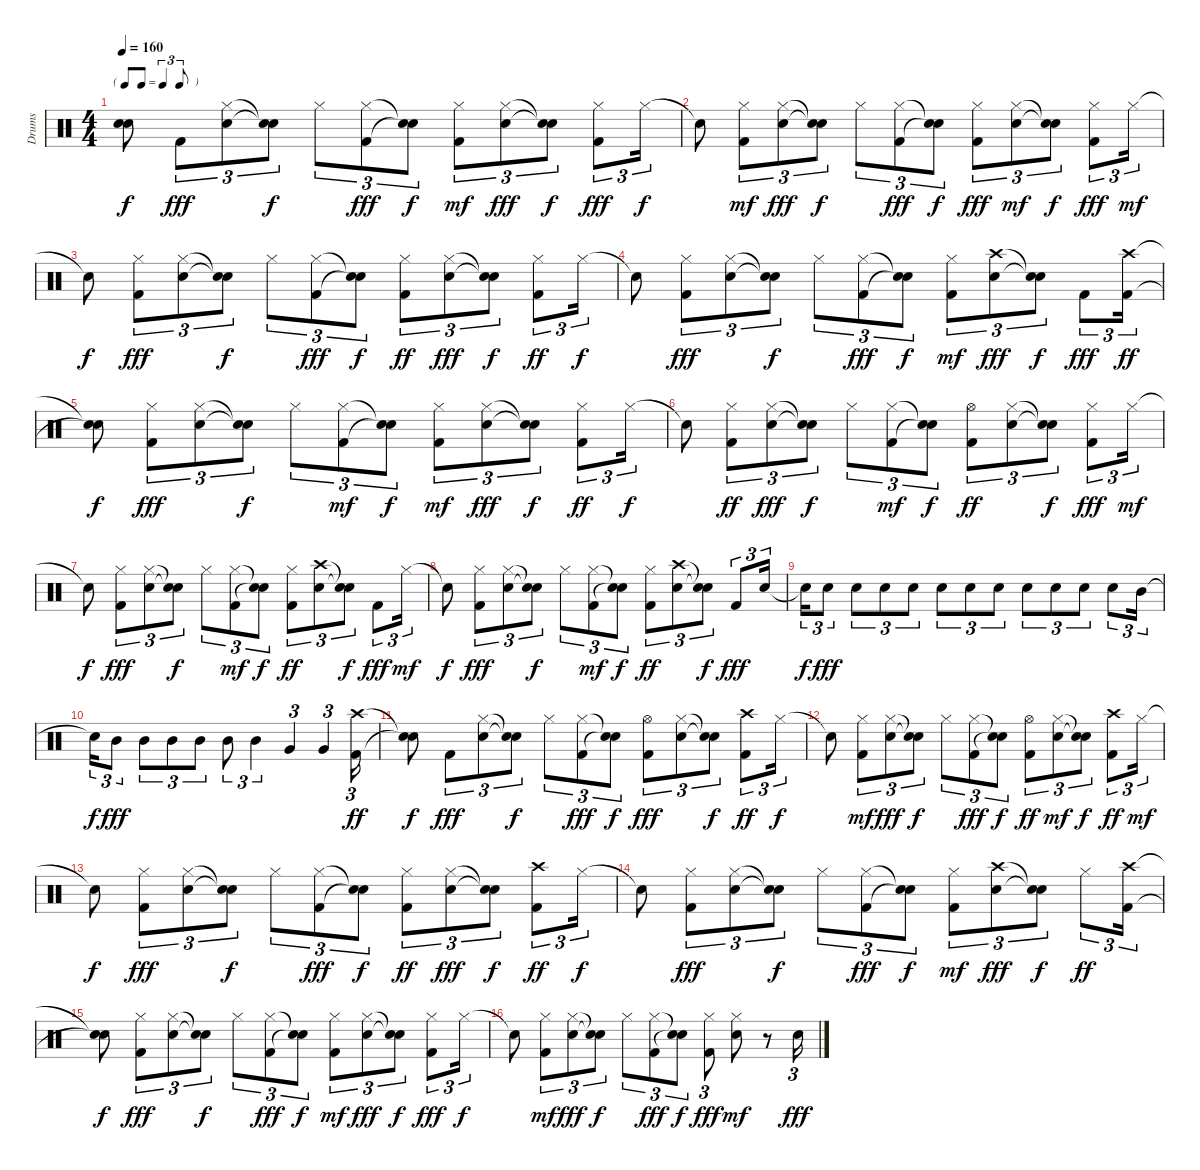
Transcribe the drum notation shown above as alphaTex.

\track ("Drums" "Drums") {instrument percussion}
\staff {score}
\articulation defaults
\ts (4 4)
\tf triplet8th
\tempo 160
\clef neutral
\ks c
("Snare (hit)"{t} "Snare (hit)"{t}).8{dy f} "Kick (hit) 2".8{tu (3 2) dy fff} ("Hi-Hat (closed)" "Electric Snare (hit)").8{tu (3 2)} ("Snare (hit)"{t} "Snare (hit)"{t}).8{tu (3 2) dy f} "Hi-Hat (closed)".8{tu (3 2)} ("Kick (hit) 2" "Hi-Hat (closed)").8{tu (3 2) dy fff} ("Snare (hit)"{t} "Snare (hit)"{t}).8{tu (3 2) dy f} ("Kick (hit) 2" "Hi-Hat (closed)").8{tu (3 2) dy mf} ("Electric Snare (hit)" "Hi-Hat (closed)").8{tu (3 2) dy fff} ("Snare (hit)"{t} "Snare (hit)"{t}).8{tu (3 2) dy f} ("Kick (hit) 2" "Hi-Hat (closed)").8{tu (3 2) dy fff} "Hi-Hat (closed)".16{tu (3 2) dy f} |
"Snare (hit)"{t}.8 ("Kick (hit) 2" "Hi-Hat (closed)").8{tu (3 2) dy mf} ("Electric Snare (hit)" "Hi-Hat (closed)").8{tu (3 2) dy fff} ("Snare (hit)"{t} "Snare (hit)"{t}).8{tu (3 2) dy f} "Hi-Hat (closed)".8{tu (3 2)} ("Kick (hit) 2" "Hi-Hat (closed)").8{tu (3 2) dy fff} ("Snare (hit)"{t} "Snare (hit)"{t}).8{tu (3 2) dy f} ("Kick (hit) 2" "Hi-Hat (closed)").8{tu (3 2) dy fff} ("Electric Snare (hit)" "Hi-Hat (closed)").8{tu (3 2) dy mf} ("Snare (hit)"{t} "Snare (hit)"{t}).8{tu (3 2) dy f} ("Kick (hit) 2" "Hi-Hat (closed)").8{tu (3 2) dy fff} "Hi-Hat (closed)".16{tu (3 2) dy mf} |
"Snare (hit)"{t}.8{dy f} ("Kick (hit) 2" "Hi-Hat (closed)").8{tu (3 2) dy fff} ("Hi-Hat (closed)" "Electric Snare (hit)").8{tu (3 2)} ("Snare (hit)"{t} "Snare (hit)"{t}).8{tu (3 2) dy f} "Hi-Hat (closed)".8{tu (3 2)} ("Kick (hit) 2" "Hi-Hat (closed)").8{tu (3 2) dy fff} ("Snare (hit)"{t} "Snare (hit)"{t}).8{tu (3 2) dy f} ("Kick (hit) 2" "Hi-Hat (closed)").8{tu (3 2) dy ff} ("Hi-Hat (closed)" "Electric Snare (hit)").8{tu (3 2) dy fff} ("Snare (hit)"{t} "Snare (hit)"{t}).8{tu (3 2) dy f} ("Kick (hit) 2" "Hi-Hat (closed)").8{tu (3 2) dy ff} "Hi-Hat (closed)".16{tu (3 2) dy f} |
"Snare (hit)"{t}.8 ("Kick (hit) 2" "Hi-Hat (closed)").8{tu (3 2) dy fff} ("Hi-Hat (closed)" "Electric Snare (hit)").8{tu (3 2)} ("Snare (hit)"{t} "Snare (hit)"{t}).8{tu (3 2) dy f} "Hi-Hat (closed)".8{tu (3 2)} ("Kick (hit) 2" "Hi-Hat (closed)").8{tu (3 2) dy fff} ("Snare (hit)"{t} "Snare (hit)"{t}).8{tu (3 2) dy f} ("Kick (hit) 2" "Hi-Hat (closed)").8{tu (3 2) dy mf} ("Crash high (hit)" "Electric Snare (hit)").8{tu (3 2) dy fff} ("Snare (hit)"{t} "Snare (hit)"{t}).8{tu (3 2) dy f} "Kick (hit) 2".8{tu (3 2) dy fff} ("Kick (hit) 2" "Crash high (hit)").16{tu (3 2) dy ff} |
("Snare (hit)"{t} "Snare (hit)"{t}).8{dy f} ("Kick (hit) 2" "Hi-Hat (closed)").8{tu (3 2) dy fff} ("Electric Snare (hit)" "Hi-Hat (closed)").8{tu (3 2)} ("Snare (hit)"{t} "Snare (hit)"{t}).8{tu (3 2) dy f} "Hi-Hat (closed)".8{tu (3 2)} ("Kick (hit) 2" "Hi-Hat (closed)").8{tu (3 2) dy mf} ("Snare (hit)"{t} "Snare (hit)"{t}).8{tu (3 2) dy f} ("Kick (hit) 2" "Hi-Hat (closed)").8{tu (3 2) dy mf} ("Electric Snare (hit)" "Hi-Hat (closed)").8{tu (3 2) dy fff} ("Snare (hit)"{t} "Snare (hit)"{t}).8{tu (3 2) dy f} ("Kick (hit) 2" "Hi-Hat (closed)").8{tu (3 2) dy ff} "Hi-Hat (closed)".16{tu (3 2) dy f} |
"Snare (hit)"{t}.8 ("Kick (hit) 2" "Hi-Hat (closed)").8{tu (3 2) dy ff} ("Hi-Hat (closed)" "Electric Snare (hit)").8{tu (3 2) dy fff} ("Snare (hit)"{t} "Snare (hit)"{t}).8{tu (3 2) dy f} "Hi-Hat (closed)".8{tu (3 2)} ("Kick (hit) 2" "Hi-Hat (closed)").8{tu (3 2) dy mf} ("Snare (hit)"{t} "Snare (hit)"{t}).8{tu (3 2) dy f} ("Kick (hit) 2" "Hi-Hat (open)").8{tu (3 2) dy ff} ("Electric Snare (hit)" "Hi-Hat (closed)").8{tu (3 2)} ("Snare (hit)"{t} "Snare (hit)"{t}).8{tu (3 2) dy f} ("Kick (hit) 2" "Hi-Hat (closed)").8{tu (3 2) dy fff} "Hi-Hat (closed)".16{tu (3 2) dy mf} |
"Snare (hit)"{t}.8{dy f} ("Kick (hit) 2" "Hi-Hat (closed)").8{tu (3 2) dy fff} ("Hi-Hat (closed)" "Electric Snare (hit)").8{tu (3 2)} ("Snare (hit)"{t} "Snare (hit)"{t}).8{tu (3 2) dy f} "Hi-Hat (closed)".8{tu (3 2)} ("Kick (hit) 2" "Hi-Hat (closed)").8{tu (3 2) dy mf} ("Snare (hit)"{t} "Snare (hit)"{t}).8{tu (3 2) dy f} ("Kick (hit) 2" "Hi-Hat (closed)").8{tu (3 2) dy ff} ("Electric Snare (hit)" "Crash high (hit)").8{tu (3 2)} ("Snare (hit)"{t} "Snare (hit)"{t}).8{tu (3 2) dy f} "Kick (hit) 2".8{tu (3 2) dy fff} "Hi-Hat (closed)".16{tu (3 2) dy mf} |
"Snare (hit)"{t}.8{dy f} ("Kick (hit) 2" "Hi-Hat (closed)").8{tu (3 2) dy fff} ("Hi-Hat (closed)" "Electric Snare (hit)").8{tu (3 2)} ("Snare (hit)"{t} "Snare (hit)"{t}).8{tu (3 2) dy f} "Hi-Hat (closed)".8{tu (3 2)} ("Kick (hit) 2" "Hi-Hat (closed)").8{tu (3 2) dy mf} ("Snare (hit)"{t} "Snare (hit)"{t}).8{tu (3 2) dy f} ("Kick (hit) 2" "Hi-Hat (closed)").8{tu (3 2) dy ff} ("Electric Snare (hit)" "Crash high (hit)").8{tu (3 2)} ("Snare (hit)"{t} "Snare (hit)"{t}).8{tu (3 2) dy f} "Kick (hit) 2".8{tu (3 2) dy fff} "Electric Snare (hit)".16{tu (3 2)} |
"Snare (hit)"{t}.16{tu (3 2) dy f} "Electric Snare (hit)".8{tu (3 2) dy fff} "Electric Snare (hit)".8{tu (3 2)} "Electric Snare (hit)".8{tu (3 2)} "Electric Snare (hit)".8{tu (3 2)} "Electric Snare (hit)".8{tu (3 2)} "Electric Snare (hit)".8{tu (3 2)} "Electric Snare (hit)".8{tu (3 2)} "Electric Snare (hit)".8{tu (3 2)} "Electric Snare (hit)".8{tu (3 2)} "Electric Snare (hit)".8{tu (3 2)} "Electric Snare (hit)".8{tu (3 2)} "Mid Tom (hit)".16{tu (3 2)} |
"Snare (hit)"{t}.16{tu (3 2) dy f} "Mid Tom (hit)".8{tu (3 2) dy fff} "Mid Tom (hit)".8{tu (3 2)} "Mid Tom (hit)".8{tu (3 2)} "Mid Tom (hit)".8{tu (3 2)} "Mid Tom (hit)".8{tu (3 2)} "Mid Tom (hit)".4{tu (3 2)} "Very Low Tom (hit)".4{tu (3 2)} "Very Low Tom (hit)".4{tu (3 2)} ("Kick (hit) 2" "Crash high (hit)").16{tu (3 2) dy ff} |
("Snare (hit)"{t} "Snare (hit)"{t}).8{dy f} "Kick (hit) 2".8{tu (3 2) dy fff} ("Hi-Hat (closed)" "Electric Snare (hit)").8{tu (3 2)} ("Snare (hit)"{t} "Snare (hit)"{t}).8{tu (3 2) dy f} "Hi-Hat (closed)".8{tu (3 2)} ("Kick (hit) 2" "Hi-Hat (closed)").8{tu (3 2) dy fff} ("Snare (hit)"{t} "Snare (hit)"{t}).8{tu (3 2) dy f} ("Kick (hit) 2" "Hi-Hat (open)").8{tu (3 2) dy fff} ("Electric Snare (hit)" "Hi-Hat (closed)").8{tu (3 2)} ("Snare (hit)"{t} "Snare (hit)"{t}).8{tu (3 2) dy f} ("Kick (hit) 2" "Crash high (hit)").8{tu (3 2) dy ff} "Hi-Hat (closed)".16{tu (3 2) dy f} |
"Snare (hit)"{t}.8 ("Kick (hit) 2" "Hi-Hat (closed)").8{tu (3 2) dy mf} ("Electric Snare (hit)" "Hi-Hat (closed)").8{tu (3 2) dy fff} ("Snare (hit)"{t} "Snare (hit)"{t}).8{tu (3 2) dy f} "Hi-Hat (closed)".8{tu (3 2)} ("Kick (hit) 2" "Hi-Hat (closed)").8{tu (3 2) dy fff} ("Snare (hit)"{t} "Snare (hit)"{t}).8{tu (3 2) dy f} ("Kick (hit) 2" "Hi-Hat (open)").8{tu (3 2) dy ff} ("Electric Snare (hit)" "Hi-Hat (closed)").8{tu (3 2) dy mf} ("Snare (hit)"{t} "Snare (hit)"{t}).8{tu (3 2) dy f} ("Kick (hit) 2" "Crash high (hit)").8{tu (3 2) dy ff} "Hi-Hat (closed)".16{tu (3 2) dy mf} |
"Snare (hit)"{t}.8{dy f} ("Kick (hit) 2" "Hi-Hat (closed)").8{tu (3 2) dy fff} ("Hi-Hat (closed)" "Electric Snare (hit)").8{tu (3 2)} ("Snare (hit)"{t} "Snare (hit)"{t}).8{tu (3 2) dy f} "Hi-Hat (closed)".8{tu (3 2)} ("Kick (hit) 2" "Hi-Hat (closed)").8{tu (3 2) dy fff} ("Snare (hit)"{t} "Snare (hit)"{t}).8{tu (3 2) dy f} ("Kick (hit) 2" "Hi-Hat (closed)").8{tu (3 2) dy ff} ("Hi-Hat (closed)" "Electric Snare (hit)").8{tu (3 2) dy fff} ("Snare (hit)"{t} "Snare (hit)"{t}).8{tu (3 2) dy f} ("Kick (hit) 2" "Crash high (hit)").8{tu (3 2) dy ff} "Hi-Hat (closed)".16{tu (3 2) dy f} |
"Snare (hit)"{t}.8 ("Kick (hit) 2" "Hi-Hat (closed)").8{tu (3 2) dy fff} ("Hi-Hat (closed)" "Electric Snare (hit)").8{tu (3 2)} ("Snare (hit)"{t} "Snare (hit)"{t}).8{tu (3 2) dy f} "Hi-Hat (closed)".8{tu (3 2)} ("Kick (hit) 2" "Hi-Hat (closed)").8{tu (3 2) dy fff} ("Snare (hit)"{t} "Snare (hit)"{t}).8{tu (3 2) dy f} ("Kick (hit) 2" "Hi-Hat (closed)").8{tu (3 2) dy mf} ("Crash high (hit)" "Electric Snare (hit)").8{tu (3 2) dy fff} ("Snare (hit)"{t} "Snare (hit)"{t}).8{tu (3 2) dy f} "Hi-Hat (closed)".8{tu (3 2) dy ff} ("Kick (hit) 2" "Crash high (hit)").16{tu (3 2)} |
("Snare (hit)"{t} "Snare (hit)"{t}).8{dy f} ("Kick (hit) 2" "Hi-Hat (closed)").8{tu (3 2) dy fff} ("Hi-Hat (closed)" "Electric Snare (hit)").8{tu (3 2)} ("Snare (hit)"{t} "Snare (hit)"{t}).8{tu (3 2) dy f} "Hi-Hat (closed)".8{tu (3 2)} ("Kick (hit) 2" "Hi-Hat (closed)").8{tu (3 2) dy fff} ("Snare (hit)"{t} "Snare (hit)"{t}).8{tu (3 2) dy f} ("Kick (hit) 2" "Hi-Hat (closed)").8{tu (3 2) dy mf} ("Electric Snare (hit)" "Hi-Hat (closed)").8{tu (3 2) dy fff} ("Snare (hit)"{t} "Snare (hit)"{t}).8{tu (3 2) dy f} ("Kick (hit) 2" "Hi-Hat (closed)").8{tu (3 2) dy fff} "Hi-Hat (closed)".16{tu (3 2) dy f} |
"Snare (hit)"{t}.8 ("Kick (hit) 2" "Hi-Hat (closed)").8{tu (3 2) dy mf} ("Electric Snare (hit)" "Hi-Hat (closed)").8{tu (3 2) dy fff} ("Snare (hit)"{t} "Snare (hit)"{t}).8{tu (3 2) dy f} "Hi-Hat (closed)".8{tu (3 2)} ("Kick (hit) 2" "Hi-Hat (closed)").8{tu (3 2) dy fff} ("Snare (hit)"{t} "Snare (hit)"{t}).8{tu (3 2) dy f} ("Kick (hit) 2" "Hi-Hat (closed)").8{tu (3 2) dy fff} ("Electric Snare (hit)" "Hi-Hat (closed)").8{dy mf} r.8 "Electric Snare (hit)".16{tu (3 2) dy fff}
